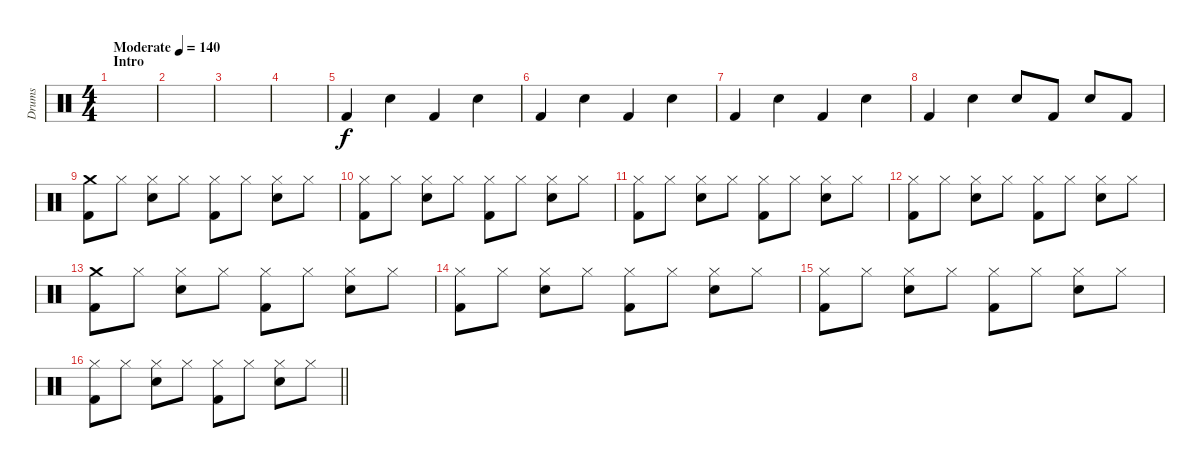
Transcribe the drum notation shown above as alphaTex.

\track ("Drums" "Drums") {instrument percussion}
\staff {score}
\articulation defaults
\ts (4 4)
\section ("" "Intro")
\tempo (140 "Moderate")
\clef neutral
\ks c
|
|
|
|
"Kick (hit) 2".4 "Electric Snare (hit)".4 "Kick (hit) 2".4 "Electric Snare (hit)".4 |
"Kick (hit) 2".4 "Electric Snare (hit)".4 "Kick (hit) 2".4 "Electric Snare (hit)".4 |
"Kick (hit) 2".4 "Electric Snare (hit)".4 "Kick (hit) 2".4 "Electric Snare (hit)".4 |
"Kick (hit) 2".4 "Electric Snare (hit)".4 "Electric Snare (hit)".8 "Kick (hit) 2".8 "Electric Snare (hit)".8 "Kick (hit) 2".8 |
("Crash medium (hit)" "Kick (hit) 2").8 "Hi-Hat (closed)".8 ("Hi-Hat (closed)" "Electric Snare (hit)").8 "Hi-Hat (closed)".8 ("Hi-Hat (closed)" "Kick (hit) 2").8 "Hi-Hat (closed)".8 ("Hi-Hat (closed)" "Electric Snare (hit)").8 "Hi-Hat (closed)".8 |
("Hi-Hat (closed)" "Kick (hit) 2").8 "Hi-Hat (closed)".8 ("Hi-Hat (closed)" "Electric Snare (hit)").8 "Hi-Hat (closed)".8 ("Hi-Hat (closed)" "Kick (hit) 2").8 "Hi-Hat (closed)".8 ("Hi-Hat (closed)" "Electric Snare (hit)").8 "Hi-Hat (closed)".8 |
("Hi-Hat (closed)" "Kick (hit) 2").8 "Hi-Hat (closed)".8 ("Hi-Hat (closed)" "Electric Snare (hit)").8 "Hi-Hat (closed)".8 ("Hi-Hat (closed)" "Kick (hit) 2").8 "Hi-Hat (closed)".8 ("Hi-Hat (closed)" "Electric Snare (hit)").8 "Hi-Hat (closed)".8 |
("Hi-Hat (closed)" "Kick (hit) 2").8 "Hi-Hat (closed)".8 ("Hi-Hat (closed)" "Electric Snare (hit)").8 "Hi-Hat (closed)".8 ("Hi-Hat (closed)" "Kick (hit) 2").8 "Hi-Hat (closed)".8 ("Hi-Hat (closed)" "Electric Snare (hit)").8 "Hi-Hat (closed)".8 |
("Crash medium (hit)" "Kick (hit) 2").8 "Hi-Hat (closed)".8 ("Hi-Hat (closed)" "Electric Snare (hit)").8 "Hi-Hat (closed)".8 ("Hi-Hat (closed)" "Kick (hit) 2").8 "Hi-Hat (closed)".8 ("Hi-Hat (closed)" "Electric Snare (hit)").8 "Hi-Hat (closed)".8 |
("Hi-Hat (closed)" "Kick (hit) 2").8 "Hi-Hat (closed)".8 ("Hi-Hat (closed)" "Electric Snare (hit)").8 "Hi-Hat (closed)".8 ("Hi-Hat (closed)" "Kick (hit) 2").8 "Hi-Hat (closed)".8 ("Hi-Hat (closed)" "Electric Snare (hit)").8 "Hi-Hat (closed)".8 |
("Hi-Hat (closed)" "Kick (hit) 2").8 "Hi-Hat (closed)".8 ("Hi-Hat (closed)" "Electric Snare (hit)").8 "Hi-Hat (closed)".8 ("Hi-Hat (closed)" "Kick (hit) 2").8 "Hi-Hat (closed)".8 ("Hi-Hat (closed)" "Electric Snare (hit)").8 "Hi-Hat (closed)".8 |
\barLineRight lightlight
("Hi-Hat (closed)" "Kick (hit) 2").8 "Hi-Hat (closed)".8 ("Hi-Hat (closed)" "Electric Snare (hit)").8 "Hi-Hat (closed)".8 ("Hi-Hat (closed)" "Kick (hit) 2").8 "Hi-Hat (closed)".8 ("Hi-Hat (closed)" "Electric Snare (hit)").8 "Hi-Hat (closed)".8
